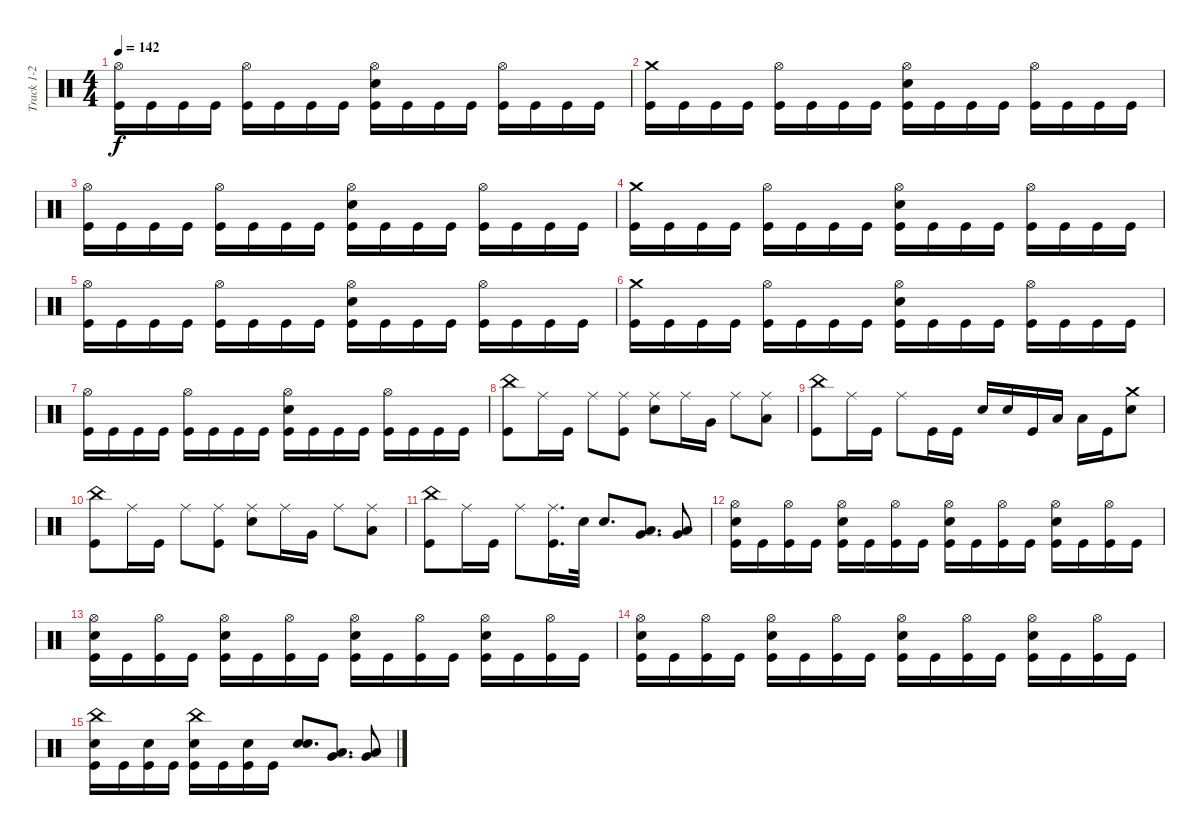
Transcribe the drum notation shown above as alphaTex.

\track ("Track 1-2" "Track 1-2") {instrument percussion}
\staff {score}
\articulation defaults
\ts (4 4)
\tempo 142
\clef neutral
\ks c
("Hi-Hat (open)" "Kick (hit)").16{dy f} "Kick (hit)".16 "Kick (hit)".16 "Kick (hit)".16 ("Hi-Hat (open)" "Kick (hit)").16 "Kick (hit)".16 "Kick (hit)".16 "Kick (hit)".16 ("Hi-Hat (open)" "Electric Snare (hit)" "Kick (hit)").16 "Kick (hit)".16 "Kick (hit)".16 "Kick (hit)".16 ("Hi-Hat (open)" "Kick (hit)").16 "Kick (hit)".16 "Kick (hit)".16 "Kick (hit)".16 |
("Crash medium (hit)" "Kick (hit)").16 "Kick (hit)".16 "Kick (hit)".16 "Kick (hit)".16 ("Hi-Hat (open)" "Kick (hit)").16 "Kick (hit)".16 "Kick (hit)".16 "Kick (hit)".16 ("Hi-Hat (open)" "Electric Snare (hit)" "Kick (hit)").16 "Kick (hit)".16 "Kick (hit)".16 "Kick (hit)".16 ("Hi-Hat (open)" "Kick (hit)").16 "Kick (hit)".16 "Kick (hit)".16 "Kick (hit)".16 |
("Hi-Hat (open)" "Kick (hit)").16 "Kick (hit)".16 "Kick (hit)".16 "Kick (hit)".16 ("Hi-Hat (open)" "Kick (hit)").16 "Kick (hit)".16 "Kick (hit)".16 "Kick (hit)".16 ("Hi-Hat (open)" "Electric Snare (hit)" "Kick (hit)").16 "Kick (hit)".16 "Kick (hit)".16 "Kick (hit)".16 ("Hi-Hat (open)" "Kick (hit)").16 "Kick (hit)".16 "Kick (hit)".16 "Kick (hit)".16 |
("Crash medium (hit)" "Kick (hit)").16 "Kick (hit)".16 "Kick (hit)".16 "Kick (hit)".16 ("Hi-Hat (open)" "Kick (hit)").16 "Kick (hit)".16 "Kick (hit)".16 "Kick (hit)".16 ("Hi-Hat (open)" "Electric Snare (hit)" "Kick (hit)").16 "Kick (hit)".16 "Kick (hit)".16 "Kick (hit)".16 ("Hi-Hat (open)" "Kick (hit)").16 "Kick (hit)".16 "Kick (hit)".16 "Kick (hit)".16 |
("Hi-Hat (open)" "Kick (hit)").16 "Kick (hit)".16 "Kick (hit)".16 "Kick (hit)".16 ("Hi-Hat (open)" "Kick (hit)").16 "Kick (hit)".16 "Kick (hit)".16 "Kick (hit)".16 ("Hi-Hat (open)" "Electric Snare (hit)" "Kick (hit)").16 "Kick (hit)".16 "Kick (hit)".16 "Kick (hit)".16 ("Hi-Hat (open)" "Kick (hit)").16 "Kick (hit)".16 "Kick (hit)".16 "Kick (hit)".16 |
("Crash medium (hit)" "Kick (hit)").16 "Kick (hit)".16 "Kick (hit)".16 "Kick (hit)".16 ("Hi-Hat (open)" "Kick (hit)").16 "Kick (hit)".16 "Kick (hit)".16 "Kick (hit)".16 ("Hi-Hat (open)" "Electric Snare (hit)" "Kick (hit)").16 "Kick (hit)".16 "Kick (hit)".16 "Kick (hit)".16 ("Hi-Hat (open)" "Kick (hit)").16 "Kick (hit)".16 "Kick (hit)".16 "Kick (hit)".16 |
("Hi-Hat (open)" "Kick (hit)").16 "Kick (hit)".16 "Kick (hit)".16 "Kick (hit)".16 ("Hi-Hat (open)" "Kick (hit)").16 "Kick (hit)".16 "Kick (hit)".16 "Kick (hit)".16 ("Hi-Hat (open)" "Electric Snare (hit)" "Kick (hit)").16 "Kick (hit)".16 "Kick (hit)".16 "Kick (hit)".16 ("Hi-Hat (open)" "Kick (hit)").16 "Kick (hit)".16 "Kick (hit)".16 "Kick (hit)".16 |
("China (hit)" "Kick (hit)").8 "Ride (middle)".16 "Kick (hit)".16 "Ride (middle)".8 ("Ride (middle)" "Kick (hit)").8 ("Ride (middle)" "Electric Snare (hit)").8 "Ride (middle)".16 "Very Low Tom (hit)".16 "Ride (middle)".8 ("Ride (middle)" "Low Floor Tom (hit)").8 |
("China (hit)" "Kick (hit)").8 "Ride (middle)".16 "Kick (hit)".16 "Ride (middle)".8 "Kick (hit)".16 "Kick (hit)".16 "Electric Snare (hit)".16 "Electric Snare (hit)".16 "Kick (hit)".16 "Low Floor Tom (hit)".16 "Low Tom (hit)".16 "Kick (hit)".16 ("Crash medium (hit)" "Electric Snare (hit)").8 |
("China (hit)" "Kick (hit)").8 "Ride (middle)".16 "Kick (hit)".16 "Ride (middle)".8 ("Ride (middle)" "Kick (hit)").8 ("Ride (middle)" "Electric Snare (hit)").8 "Ride (middle)".16 "Very Low Tom (hit)".16 "Ride (middle)".8 ("Ride (middle)" "Low Floor Tom (hit)").8 |
("China (hit)" "Kick (hit)").8 "Ride (middle)".16 "Kick (hit)".16 "Ride (middle)".8 ("Ride (middle)" "Kick (hit)").16{d} "Electric Snare (hit)".32 "Electric Snare (hit)".8{d} ("Very Low Tom (hit)" "Low Tom (hit)").8{d} ("Low Floor Tom (hit)" "Very Low Tom (hit)").8 |
("Hi-Hat (open)" "Electric Snare (hit)" "Kick (hit)").16 "Kick (hit)".16 ("Hi-Hat (open)" "Kick (hit)").16 "Kick (hit)".16 ("Hi-Hat (open)" "Electric Snare (hit)" "Kick (hit)").16 "Kick (hit)".16 ("Hi-Hat (open)" "Kick (hit)").16 "Kick (hit)".16 ("Hi-Hat (open)" "Electric Snare (hit)" "Kick (hit)").16 "Kick (hit)".16 ("Hi-Hat (open)" "Kick (hit)").16 "Kick (hit)".16 ("Hi-Hat (open)" "Electric Snare (hit)" "Kick (hit)").16 "Kick (hit)".16 ("Hi-Hat (open)" "Kick (hit)").16 "Kick (hit)".16 |
("Hi-Hat (open)" "Electric Snare (hit)" "Kick (hit)").16 "Kick (hit)".16 ("Hi-Hat (open)" "Kick (hit)").16 "Kick (hit)".16 ("Hi-Hat (open)" "Electric Snare (hit)" "Kick (hit)").16 "Kick (hit)".16 ("Hi-Hat (open)" "Kick (hit)").16 "Kick (hit)".16 ("Hi-Hat (open)" "Electric Snare (hit)" "Kick (hit)").16 "Kick (hit)".16 ("Hi-Hat (open)" "Kick (hit)").16 "Kick (hit)".16 ("Hi-Hat (open)" "Electric Snare (hit)" "Kick (hit)").16 "Kick (hit)".16 ("Hi-Hat (open)" "Kick (hit)").16 "Kick (hit)".16 |
("Hi-Hat (open)" "Electric Snare (hit)" "Kick (hit)").16 "Kick (hit)".16 ("Hi-Hat (open)" "Kick (hit)").16 "Kick (hit)".16 ("Hi-Hat (open)" "Electric Snare (hit)" "Kick (hit)").16 "Kick (hit)".16 ("Hi-Hat (open)" "Kick (hit)").16 "Kick (hit)".16 ("Hi-Hat (open)" "Electric Snare (hit)" "Kick (hit)").16 "Kick (hit)".16 ("Hi-Hat (open)" "Kick (hit)").16 "Kick (hit)".16 ("Hi-Hat (open)" "Electric Snare (hit)" "Kick (hit)").16 "Kick (hit)".16 ("Hi-Hat (open)" "Kick (hit)").16 "Kick (hit)".16 |
("China (hit)" "Electric Snare (hit)" "Kick (hit)").16 "Kick (hit)".16 ("Electric Snare (hit)" "Kick (hit)").16 "Kick (hit)".16 ("China (hit)" "Electric Snare (hit)" "Kick (hit)").16 "Kick (hit)".16 ("Electric Snare (hit)" "Kick (hit)").16 "Kick (hit)".16 ("Electric Snare (hit)" "Electric Snare (hit)").8{d} ("Very Low Tom (hit)" "Low Tom (hit)").8{d} ("Low Floor Tom (hit)" "Very Low Tom (hit)").8
